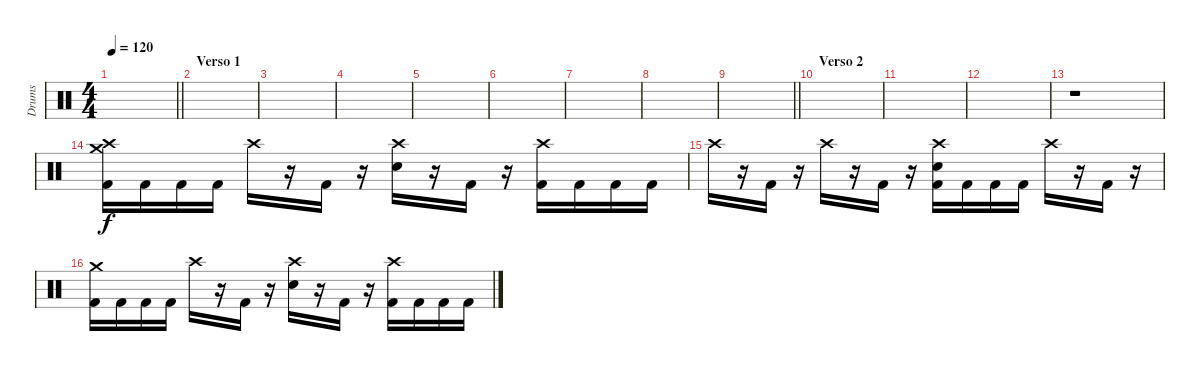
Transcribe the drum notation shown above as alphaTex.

\track ("Drums " "Drums ") {instrument percussion}
\staff {score}
\articulation defaults
\ts (4 4)
\tempo 120
\clef neutral
\barLineRight lightlight
\ks c
|
\section ("" "Verso 1")
|
|
|
|
|
|
|
\barLineRight lightlight
|
\section ("" "Verso 2")
|
|
|
r.1 |
("Crash medium (hit)" "Crash high (hit)" "Kick (hit) 2").16 "Kick (hit) 2".16 "Kick (hit) 2".16 "Kick (hit) 2".16 "Crash high (hit)".16 r.16 "Kick (hit) 2".16 r.16 ("Crash high (hit)" "Electric Snare (hit)").16 r.16 "Kick (hit) 2".16 r.16 ("Crash high (hit)" "Kick (hit) 2").16 "Kick (hit) 2".16 "Kick (hit) 2".16 "Kick (hit) 2".16 |
"Crash high (hit)".16 r.16 "Kick (hit) 2".16 r.16 "Crash high (hit)".16 r.16 "Kick (hit) 2".16 r.16 ("Crash high (hit)" "Electric Snare (hit)" "Kick (hit) 2").16 "Kick (hit) 2".16 "Kick (hit) 2".16 "Kick (hit) 2".16 "Crash high (hit)".16 r.16 "Kick (hit) 2".16 r.16 |
("Crash medium (hit)" "Kick (hit) 2").16 "Kick (hit) 2".16 "Kick (hit) 2".16 "Kick (hit) 2".16 "Crash high (hit)".16 r.16 "Kick (hit) 2".16 r.16 ("Crash high (hit)" "Electric Snare (hit)").16 r.16 "Kick (hit) 2".16 r.16 ("Crash high (hit)" "Kick (hit) 2").16 "Kick (hit) 2".16 "Kick (hit) 2".16 "Kick (hit) 2".16
